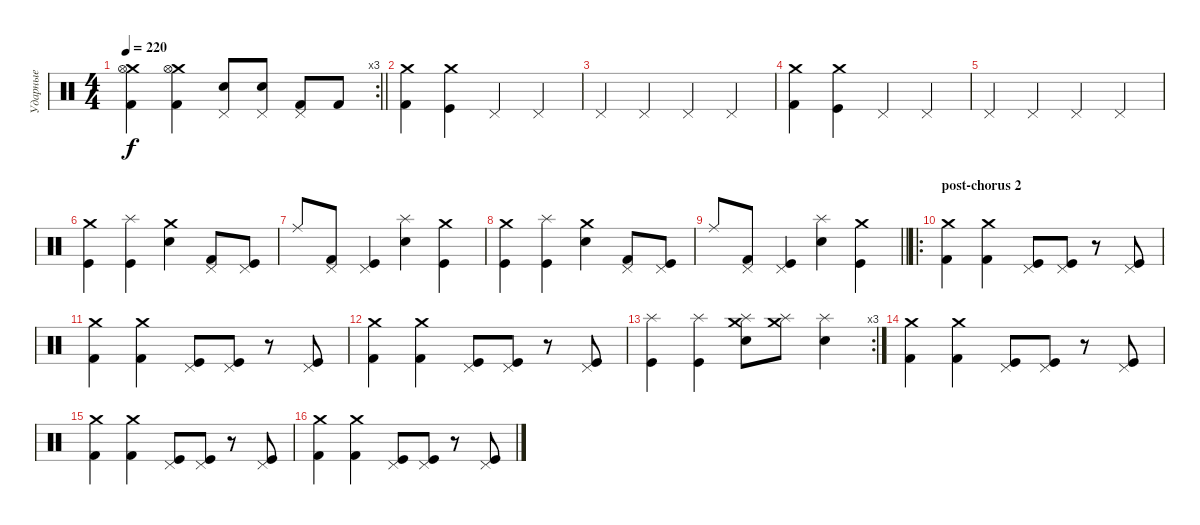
\track ("Ударные" "Ударные") {instrument percussion}
\staff
\articulation defaults
\rc 3
\ts (4 4)
\tempo 220
\clef neutral
\barLineRight lightlight
\ks c
("Crash medium (hit)" "Hi-Hat (open)" "Kick (hit) 2").4{dy f} ("Crash medium (hit)" "Hi-Hat (open)" "Kick (hit) 2").4 ("Pedal Hi-Hat (hit)" "Electric Snare (hit)").8 ("Pedal Hi-Hat (hit)" "Electric Snare (hit)").8 ("Pedal Hi-Hat (hit)" "Kick (hit) 2").8 "Kick (hit) 2".8 |
("Crash medium (hit)" "Kick (hit) 2").4 ("Crash medium (hit)" "Kick (hit)").4 "Pedal Hi-Hat (hit)".4 "Pedal Hi-Hat (hit)".4 |
"Pedal Hi-Hat (hit)".4 "Pedal Hi-Hat (hit)".4 "Pedal Hi-Hat (hit)".4 "Pedal Hi-Hat (hit)".4 |
("Crash medium (hit)" "Kick (hit) 2").4 ("Crash medium (hit)" "Kick (hit)").4 "Pedal Hi-Hat (hit)".4 "Pedal Hi-Hat (hit)".4 |
"Pedal Hi-Hat (hit)".4 "Pedal Hi-Hat (hit)".4 "Pedal Hi-Hat (hit)".4 "Pedal Hi-Hat (hit)".4 |
("Crash medium (hit)" "Kick (hit)").4 ("Splash (hit)" "Kick (hit)").4 ("Crash medium (hit)" "Electric Snare (hit)").4 ("Pedal Hi-Hat (hit)" "Kick (hit) 2").8 ("Pedal Hi-Hat (hit)" "Kick (hit)").8 |
"Ride (middle)".8 ("Pedal Hi-Hat (hit)" "Kick (hit) 2").8 ("Pedal Hi-Hat (hit)" "Kick (hit)").4 ("Splash (hit)" "Electric Snare (hit)").4 ("Crash medium (hit)" "Kick (hit)").4 |
("Crash medium (hit)" "Kick (hit)").4 ("Splash (hit)" "Kick (hit)").4 ("Crash medium (hit)" "Electric Snare (hit)").4 ("Pedal Hi-Hat (hit)" "Kick (hit) 2").8 ("Pedal Hi-Hat (hit)" "Kick (hit)").8 |
\barLineRight lightlight "Ride (middle)".8
("Pedal Hi-Hat (hit)" "Kick (hit) 2").8 ("Pedal Hi-Hat (hit)" "Kick (hit)").4 ("Splash (hit)" "Electric Snare (hit)").4 ("Crash medium (hit)" "Kick (hit)").4 |
\ro
\section ("" "post-chorus 2")
("Crash medium (hit)" "Kick (hit) 2").4 ("Crash medium (hit)" "Kick (hit) 2").4 ("Pedal Hi-Hat (hit)" "Kick (hit)").8 ("Pedal Hi-Hat (hit)" "Kick (hit)").8 r.8 ("Pedal Hi-Hat (hit)" "Kick (hit)").8 |
("Crash medium (hit)" "Kick (hit) 2").4 ("Crash medium (hit)" "Kick (hit) 2").4 ("Pedal Hi-Hat (hit)" "Kick (hit)").8 ("Pedal Hi-Hat (hit)" "Kick (hit)").8 r.8 ("Pedal Hi-Hat (hit)" "Kick (hit)").8 |
("Crash medium (hit)" "Kick (hit) 2").4 ("Crash medium (hit)" "Kick (hit) 2").4 ("Pedal Hi-Hat (hit)" "Kick (hit)").8 ("Pedal Hi-Hat (hit)" "Kick (hit)").8 r.8 ("Pedal Hi-Hat (hit)" "Kick (hit)").8 |
\rc 3
("Splash (hit)" "Kick (hit)").4 ("Splash (hit)" "Kick (hit)").4 ("Crash medium (hit)" "Splash (hit)" "Electric Snare (hit)").8 ("Crash medium (hit)" "Splash (hit)").8 ("Splash (hit)" "Electric Snare (hit)").4 |
("Crash medium (hit)" "Kick (hit) 2").4 ("Crash medium (hit)" "Kick (hit) 2").4 ("Pedal Hi-Hat (hit)" "Kick (hit)").8 ("Pedal Hi-Hat (hit)" "Kick (hit)").8 r.8 ("Pedal Hi-Hat (hit)" "Kick (hit)").8 |
("Crash medium (hit)" "Kick (hit) 2").4 ("Crash medium (hit)" "Kick (hit) 2").4 ("Pedal Hi-Hat (hit)" "Kick (hit)").8 ("Pedal Hi-Hat (hit)" "Kick (hit)").8 r.8 ("Pedal Hi-Hat (hit)" "Kick (hit)").8 |
("Crash medium (hit)" "Kick (hit) 2").4 ("Crash medium (hit)" "Kick (hit) 2").4 ("Pedal Hi-Hat (hit)" "Kick (hit)").8 ("Pedal Hi-Hat (hit)" "Kick (hit)").8 r.8 ("Pedal Hi-Hat (hit)" "Kick (hit)").8
